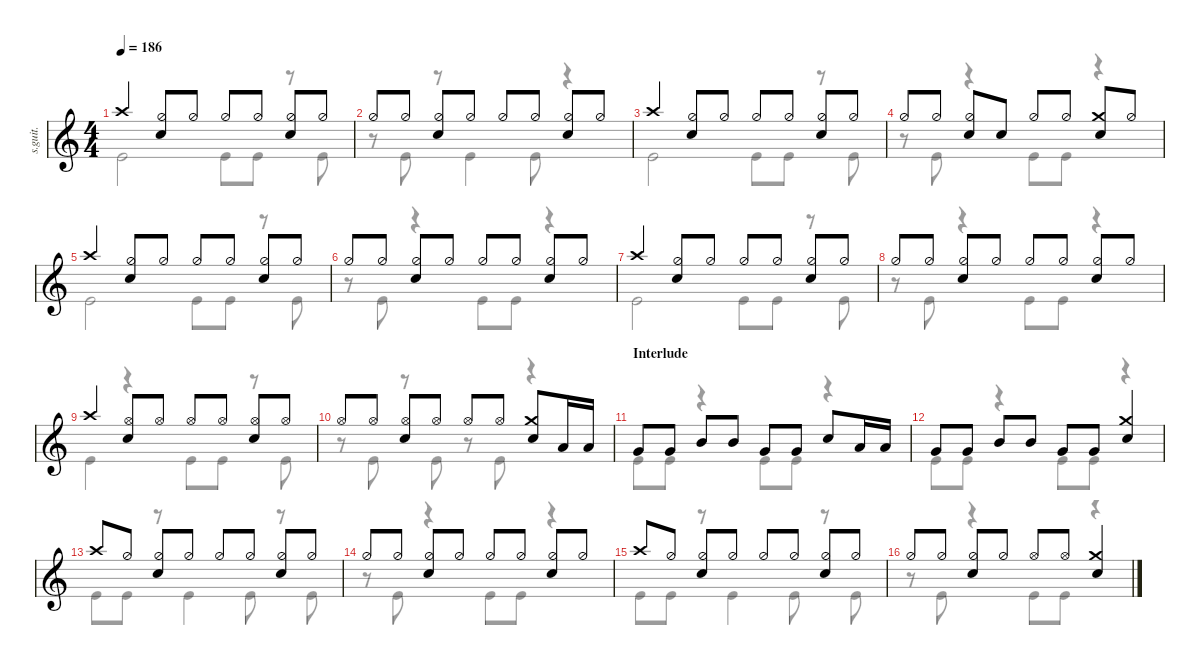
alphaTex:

\defaultSystemsLayout 4
\hideDynamics
\bracketExtendMode nobrackets
\track ("Tre Cool" "s.guit.") {instrument percussion}
\staff {score}
\articulation defaults
\voice
\ts (4 4)
\tempo 186
\clef g2
\ks c "Crash high (hit)".4{dy f}
("Hi-Hat (half)" "Snare (hit) 2").8 "Hi-Hat (half)".8 "Hi-Hat (half)".8 "Hi-Hat (half)".8 ("Hi-Hat (half)" "Snare (hit) 2").8 "Hi-Hat (half)".8 |
"Hi-Hat (half)".8 "Hi-Hat (half)".8 ("Hi-Hat (half)" "Snare (hit) 2").8 "Hi-Hat (half)".8 "Hi-Hat (half)".8 "Hi-Hat (half)".8 ("Hi-Hat (half)" "Snare (hit) 2").8 "Hi-Hat (half)".8 |
"Crash high (hit)".4 ("Hi-Hat (half)" "Snare (hit) 2").8 "Hi-Hat (half)".8 "Hi-Hat (half)".8 "Hi-Hat (half)".8 ("Hi-Hat (half)" "Snare (hit) 2").8 "Hi-Hat (half)".8 |
"Hi-Hat (half)".8 "Hi-Hat (half)".8 ("Hi-Hat (half)" "Snare (hit) 2").8 "Snare (hit) 2".8 "Hi-Hat (half)".8 "Hi-Hat (half)".8 ("Crash medium (hit)" "Snare (hit) 2").8 "Hi-Hat (half)".8 |
"Crash high (hit)".4 ("Hi-Hat (half)" "Snare (hit) 2").8 "Hi-Hat (half)".8 "Hi-Hat (half)".8 "Hi-Hat (half)".8 ("Hi-Hat (half)" "Snare (hit) 2").8 "Hi-Hat (half)".8 |
"Hi-Hat (half)".8 "Hi-Hat (half)".8 ("Hi-Hat (half)" "Snare (hit) 2").8 "Hi-Hat (half)".8 "Hi-Hat (half)".8 "Hi-Hat (half)".8 ("Hi-Hat (half)" "Snare (hit) 2").8 "Hi-Hat (half)".8 |
"Crash high (hit)".4 ("Hi-Hat (half)" "Snare (hit) 2").8 "Hi-Hat (half)".8 "Hi-Hat (half)".8 "Hi-Hat (half)".8 ("Hi-Hat (half)" "Snare (hit) 2").8 "Hi-Hat (half)".8 |
"Hi-Hat (half)".8 "Hi-Hat (half)".8 ("Hi-Hat (half)" "Snare (hit) 2").8 "Hi-Hat (half)".8 "Hi-Hat (half)".8 "Hi-Hat (half)".8 ("Hi-Hat (half)" "Snare (hit) 2").8 "Hi-Hat (half)".8 |
"Crash high (hit)".4 ("Snare (hit) 2" "Hi-Hat (open)").8 "Hi-Hat (open)".8 "Hi-Hat (open)".8 "Hi-Hat (open)".8 ("Hi-Hat (open)" "Snare (hit) 2").8 "Hi-Hat (open)".8 |
"Hi-Hat (open)".8 "Hi-Hat (open)".8 ("Hi-Hat (open)" "Snare (hit) 2").8 "Hi-Hat (open)".8 "Hi-Hat (open)".8 "Hi-Hat (open)".8 ("Crash medium (hit)" "Snare (hit) 2").8 "Low Tom (hit)".16 "Low Tom (hit)".16 |
\section ("" "Interlude")
"Very Low Tom (hit)".8 "Very Low Tom (hit)".8 "Mid Tom (hit)".8 "Mid Tom (hit)".8 "Very Low Tom (hit)".8 "Very Low Tom (hit)".8 "Snare (hit) 2".8 "Low Tom (hit)".16 "Low Tom (hit)".16 |
"Very Low Tom (hit)".8 "Very Low Tom (hit)".8 "Mid Tom (hit)".8 "Mid Tom (hit)".8 "Very Low Tom (hit)".8 "Very Low Tom (hit)".8 ("Snare (hit) 2" "Crash medium (hit)").4 |
"Crash high (hit)".8 "Hi-Hat (half)".8 ("Hi-Hat (half)" "Snare (hit) 2").8 "Hi-Hat (half)".8 "Hi-Hat (half)".8 "Hi-Hat (half)".8 ("Hi-Hat (half)" "Snare (hit) 2").8 "Hi-Hat (half)".8 |
"Hi-Hat (half)".8 "Hi-Hat (half)".8 ("Hi-Hat (half)" "Snare (hit) 2").8 "Hi-Hat (half)".8 "Hi-Hat (half)".8 "Hi-Hat (half)".8 ("Hi-Hat (half)" "Snare (hit) 2").8 "Hi-Hat (half)".8 |
"Crash high (hit)".8 "Hi-Hat (half)".8 ("Hi-Hat (half)" "Snare (hit) 2").8 "Hi-Hat (half)".8 "Hi-Hat (half)".8 "Hi-Hat (half)".8 ("Hi-Hat (half)" "Snare (hit) 2").8 "Hi-Hat (half)".8 |
"Hi-Hat (half)".8 "Hi-Hat (half)".8 ("Hi-Hat (half)" "Snare (hit) 2").8 "Hi-Hat (half)".8 "Hi-Hat (open)".8 "Hi-Hat (open)".8 ("Snare (hit) 2" "Crash medium (hit)").4
\voice
\clef g2
\ottava regular
\simile none
\ks c "Kick (hit)".2{dy f} "Kick (hit)".8 "Kick (hit)".8
r.8 "Kick (hit)".8 |
r.8 "Kick (hit)".8 r.8 "Kick (hit)".4 "Kick (hit)".8 r.4 |
"Kick (hit)".2 "Kick (hit)".8 "Kick (hit)".8 r.8 "Kick (hit)".8 |
r.8 "Kick (hit)".8 r.4 "Kick (hit)".8 "Kick (hit)".8 r.4 |
"Kick (hit)".2 "Kick (hit)".8 "Kick (hit)".8 r.8 "Kick (hit)".8 |
r.8 "Kick (hit)".8 r.4 "Kick (hit)".8 "Kick (hit)".8 r.4 |
"Kick (hit)".2 "Kick (hit)".8 "Kick (hit)".8 r.8 "Kick (hit)".8 |
r.8 "Kick (hit)".8 r.4 "Kick (hit)".8 "Kick (hit)".8 r.4 |
"Kick (hit)".4 r.4 "Kick (hit)".8 "Kick (hit)".8 r.8 "Kick (hit)".8 |
r.8 "Kick (hit)".8 r.8 "Kick (hit)".8 r.8 "Kick (hit)".8 r.4 |
"Kick (hit)".8 "Kick (hit)".8 r.4 "Kick (hit)".8 "Kick (hit)".8 r.4 |
"Kick (hit)".8 "Kick (hit)".8 r.4 "Kick (hit)".8 "Kick (hit)".8 r.4 |
"Kick (hit)".8 "Kick (hit)".8 r.8 "Kick (hit)".4 "Kick (hit)".8 r.8 "Kick (hit)".8 |
r.8 "Kick (hit)".8 r.4 "Kick (hit)".8 "Kick (hit)".8 r.4 |
"Kick (hit)".8 "Kick (hit)".8 r.8 "Kick (hit)".4 "Kick (hit)".8 r.8 "Kick (hit)".8 |
r.8 "Kick (hit)".8 r.4 "Kick (hit)".8 "Kick (hit)".8 r.4
